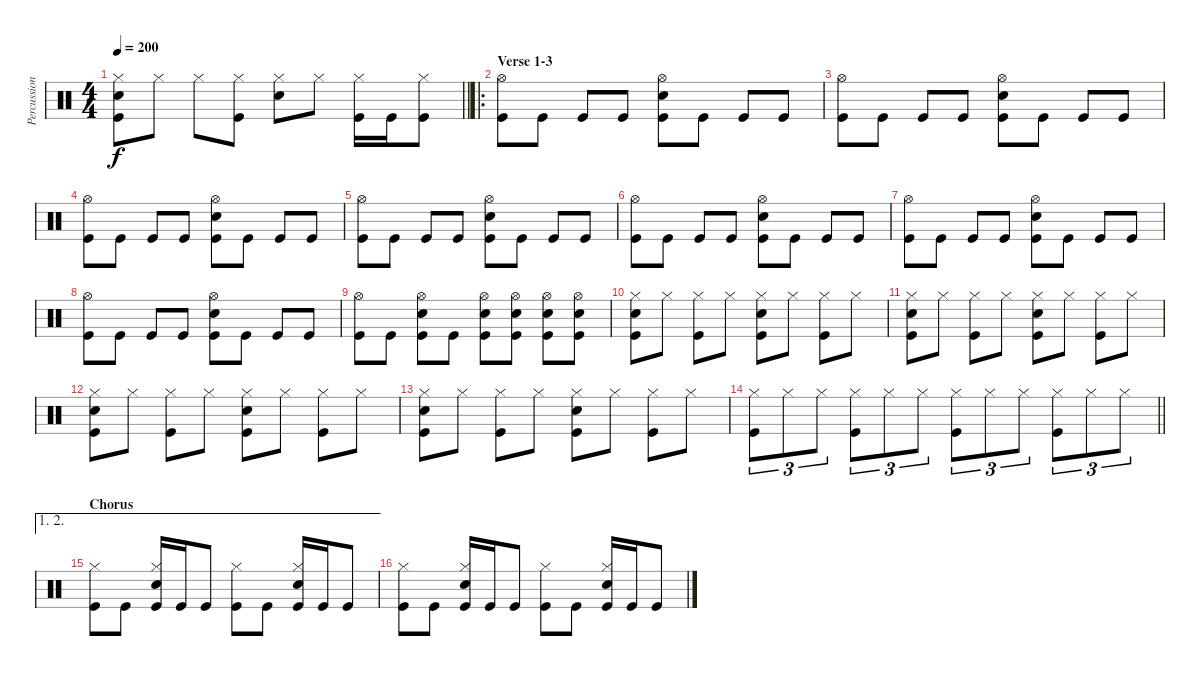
\track ("Percussion" "Percussion") {instrument percussion}
\staff {score}
\articulation defaults
\ts (4 4)
\tempo 200
\clef neutral
\barLineRight lightlight
\ks c
("Snare (hit) 2" "Hi-Hat (closed)" "Kick (hit)").8{dy f} "Hi-Hat (closed)".8 "Hi-Hat (closed)".8 ("Hi-Hat (closed)" "Kick (hit)").8 ("Snare (hit) 2" "Hi-Hat (closed)").8 "Hi-Hat (closed)".8 ("Hi-Hat (closed)" "Kick (hit)").16 "Kick (hit)".16 ("Hi-Hat (closed)" "Kick (hit)").8 |
\ro
\section ("" "Verse 1-3")
("Hi-Hat (open)" "Kick (hit)").8 "Kick (hit)".8 "Kick (hit)".8 "Kick (hit)".8 ("Snare (hit) 2" "Hi-Hat (open)" "Kick (hit)").8 "Kick (hit)".8 "Kick (hit)".8 "Kick (hit)".8 |
("Hi-Hat (open)" "Kick (hit)").8 "Kick (hit)".8 "Kick (hit)".8 "Kick (hit)".8 ("Snare (hit) 2" "Hi-Hat (open)" "Kick (hit)").8 "Kick (hit)".8 "Kick (hit)".8 "Kick (hit)".8 |
("Hi-Hat (open)" "Kick (hit)").8 "Kick (hit)".8 "Kick (hit)".8 "Kick (hit)".8 ("Snare (hit) 2" "Hi-Hat (open)" "Kick (hit)").8 "Kick (hit)".8 "Kick (hit)".8 "Kick (hit)".8 |
("Hi-Hat (open)" "Kick (hit)").8 "Kick (hit)".8 "Kick (hit)".8 "Kick (hit)".8 ("Snare (hit) 2" "Hi-Hat (open)" "Kick (hit)").8 "Kick (hit)".8 "Kick (hit)".8 "Kick (hit)".8 |
("Hi-Hat (open)" "Kick (hit)").8 "Kick (hit)".8 "Kick (hit)".8 "Kick (hit)".8 ("Snare (hit) 2" "Hi-Hat (open)" "Kick (hit)").8 "Kick (hit)".8 "Kick (hit)".8 "Kick (hit)".8 |
("Hi-Hat (open)" "Kick (hit)").8 "Kick (hit)".8 "Kick (hit)".8 "Kick (hit)".8 ("Snare (hit) 2" "Hi-Hat (open)" "Kick (hit)").8 "Kick (hit)".8 "Kick (hit)".8 "Kick (hit)".8 |
("Hi-Hat (open)" "Kick (hit)").8 "Kick (hit)".8 "Kick (hit)".8 "Kick (hit)".8 ("Snare (hit) 2" "Hi-Hat (open)" "Kick (hit)").8 "Kick (hit)".8 "Kick (hit)".8 "Kick (hit)".8 |
("Hi-Hat (open)" "Kick (hit)").8 "Kick (hit)".8 ("Snare (hit) 2" "Hi-Hat (open)" "Kick (hit)").8 "Kick (hit)".8 ("Snare (hit) 2" "Hi-Hat (open)" "Kick (hit)").8 ("Snare (hit) 2" "Hi-Hat (open)" "Kick (hit)").8 ("Snare (hit) 2" "Hi-Hat (open)" "Kick (hit)").8 ("Snare (hit) 2" "Hi-Hat (open)" "Kick (hit)").8 |
("Snare (hit) 2" "Hi-Hat (closed)" "Kick (hit)").8 "Hi-Hat (closed)".8 ("Hi-Hat (closed)" "Kick (hit)").8 "Hi-Hat (closed)".8 ("Snare (hit) 2" "Hi-Hat (closed)" "Kick (hit)").8 "Hi-Hat (closed)".8 ("Hi-Hat (closed)" "Kick (hit)").8 "Hi-Hat (closed)".8 |
("Snare (hit) 2" "Hi-Hat (closed)" "Kick (hit)").8 "Hi-Hat (closed)".8 ("Hi-Hat (closed)" "Kick (hit)").8 "Hi-Hat (closed)".8 ("Snare (hit) 2" "Hi-Hat (closed)" "Kick (hit)").8 "Hi-Hat (closed)".8 ("Hi-Hat (closed)" "Kick (hit)").8 "Hi-Hat (closed)".8 |
("Snare (hit) 2" "Hi-Hat (closed)" "Kick (hit)").8 "Hi-Hat (closed)".8 ("Hi-Hat (closed)" "Kick (hit)").8 "Hi-Hat (closed)".8 ("Snare (hit) 2" "Hi-Hat (closed)" "Kick (hit)").8 "Hi-Hat (closed)".8 ("Hi-Hat (closed)" "Kick (hit)").8 "Hi-Hat (closed)".8 |
("Snare (hit) 2" "Hi-Hat (closed)" "Kick (hit)").8 "Hi-Hat (closed)".8 ("Hi-Hat (closed)" "Kick (hit)").8 "Hi-Hat (closed)".8 ("Snare (hit) 2" "Hi-Hat (closed)" "Kick (hit)").8 "Hi-Hat (closed)".8 ("Hi-Hat (closed)" "Kick (hit)").8 "Hi-Hat (closed)".8 |
\barLineRight lightlight
("Hi-Hat (closed)" "Kick (hit)").8{tu (3 2)} "Hi-Hat (closed)".8{tu (3 2)} "Hi-Hat (closed)".8{tu (3 2)} ("Hi-Hat (closed)" "Kick (hit)").8{tu (3 2)} "Hi-Hat (closed)".8{tu (3 2)} "Hi-Hat (closed)".8{tu (3 2)} ("Hi-Hat (closed)" "Kick (hit)").8{tu (3 2)} "Hi-Hat (closed)".8{tu (3 2)} "Hi-Hat (closed)".8{tu (3 2)} ("Hi-Hat (closed)" "Kick (hit)").8{tu (3 2)} "Hi-Hat (closed)".8{tu (3 2)} "Hi-Hat (closed)".8{tu (3 2)} |
\ae (1 2)
\section ("" "Chorus")
("Hi-Hat (closed)" "Kick (hit)").8 "Kick (hit)".8 ("Snare (hit) 2" "Hi-Hat (closed)" "Kick (hit)").16 "Kick (hit)".16 "Kick (hit)".8 ("Hi-Hat (closed)" "Kick (hit)").8 "Kick (hit)".8 ("Snare (hit) 2" "Hi-Hat (closed)" "Kick (hit)").16 "Kick (hit)".16 "Kick (hit)".8 |
("Hi-Hat (closed)" "Kick (hit)").8 "Kick (hit)".8 ("Snare (hit) 2" "Hi-Hat (closed)" "Kick (hit)").16 "Kick (hit)".16 "Kick (hit)".8 ("Hi-Hat (closed)" "Kick (hit)").8 "Kick (hit)".8 ("Snare (hit) 2" "Hi-Hat (closed)" "Kick (hit)").16 "Kick (hit)".16 "Kick (hit)".8
